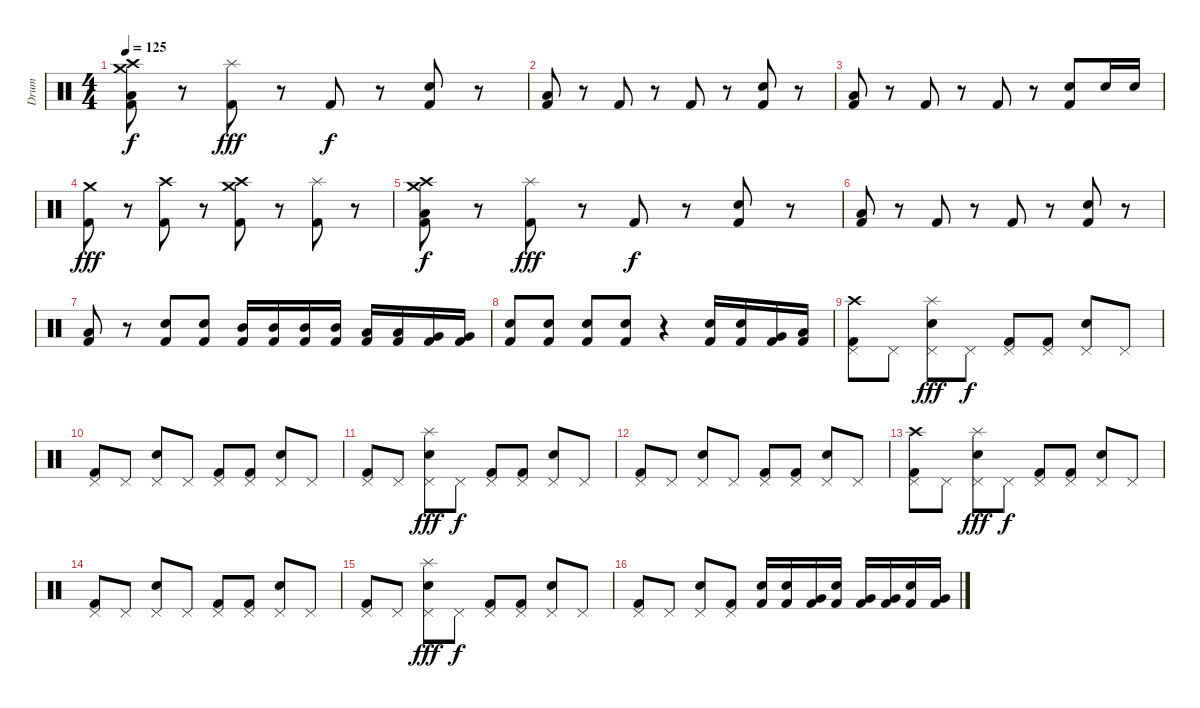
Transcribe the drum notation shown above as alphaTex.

\track ("Drum" "Drum") {instrument percussion}
\staff {score}
\articulation defaults
\ts (4 4)
\tempo 125
\clef neutral
\ks c
("Crash medium (hit)" "Crash high (hit)" "Low Floor Tom (hit)" "Kick (hit) 2").8{dy f} r.8 ("Splash (hit)" "Kick (hit) 2").8{dy fff} r.8 "Kick (hit) 2".8{dy f} r.8 ("Electric Snare (hit)" "Kick (hit) 2").8 r.8 |
("Low Floor Tom (hit)" "Kick (hit) 2").8 r.8 "Kick (hit) 2".8 r.8 "Kick (hit) 2".8 r.8 ("Electric Snare (hit)" "Kick (hit) 2").8 r.8 |
("Low Floor Tom (hit)" "Kick (hit) 2").8 r.8 "Kick (hit) 2".8 r.8 "Kick (hit) 2".8 r.8 ("Electric Snare (hit)" "Kick (hit) 2").8 "Electric Snare (hit)".16 "Electric Snare (hit)".16 |
("Crash medium (hit)" "Kick (hit) 2").8{dy fff} r.8 ("Crash high (hit)" "Kick (hit) 2").8 r.8 ("Crash high (hit)" "Crash medium (hit)" "Kick (hit) 2").8 r.8 ("Splash (hit)" "Kick (hit) 2").8 r.8 |
("Crash high (hit)" "Crash medium (hit)" "Low Floor Tom (hit)" "Kick (hit) 2").8{dy f} r.8 ("Splash (hit)" "Kick (hit) 2").8{dy fff} r.8 "Kick (hit) 2".8{dy f} r.8 ("Electric Snare (hit)" "Kick (hit) 2").8 r.8 |
("Low Floor Tom (hit)" "Kick (hit) 2").8 r.8 "Kick (hit) 2".8 r.8 "Kick (hit) 2".8 r.8 ("Electric Snare (hit)" "Kick (hit) 2").8 r.8 |
("Low Floor Tom (hit)" "Kick (hit) 2").8 r.8 ("Electric Snare (hit)" "Kick (hit) 2").8 ("Electric Snare (hit)" "Kick (hit) 2").8 ("Mid Tom (hit)" "Kick (hit) 2").16 ("Mid Tom (hit)" "Kick (hit) 2").16 ("Mid Tom (hit)" "Kick (hit) 2").16 ("Mid Tom (hit)" "Kick (hit) 2").16 ("Low Tom (hit)" "Kick (hit) 2").16 ("Low Tom (hit)" "Kick (hit) 2").16 ("Very Low Tom (hit)" "Kick (hit) 2").16 ("Very Low Tom (hit)" "Kick (hit) 2").16 |
("Electric Snare (hit)" "Kick (hit) 2").8 ("Electric Snare (hit)" "Kick (hit) 2").8 ("Electric Snare (hit)" "Kick (hit) 2").8 ("Electric Snare (hit)" "Kick (hit) 2").8 r.4 ("Electric Snare (hit)" "Kick (hit) 2").16 ("Electric Snare (hit)" "Kick (hit) 2").16 ("Very Low Tom (hit)" "Kick (hit) 2").16 ("Low Floor Tom (hit)" "Kick (hit) 2").16 |
("Crash high (hit)" "Pedal Hi-Hat (hit)" "Kick (hit) 2").8 "Pedal Hi-Hat (hit)".8 ("Electric Snare (hit)" "Splash (hit)" "Pedal Hi-Hat (hit)").8{dy fff} "Pedal Hi-Hat (hit)".8{dy f} ("Pedal Hi-Hat (hit)" "Kick (hit) 2").8 ("Pedal Hi-Hat (hit)" "Kick (hit) 2").8 ("Electric Snare (hit)" "Pedal Hi-Hat (hit)").8 "Pedal Hi-Hat (hit)".8 |
("Pedal Hi-Hat (hit)" "Kick (hit) 2").8 "Pedal Hi-Hat (hit)".8 ("Electric Snare (hit)" "Pedal Hi-Hat (hit)").8 "Pedal Hi-Hat (hit)".8 ("Pedal Hi-Hat (hit)" "Kick (hit) 2").8 ("Pedal Hi-Hat (hit)" "Kick (hit) 2").8 ("Electric Snare (hit)" "Pedal Hi-Hat (hit)").8 "Pedal Hi-Hat (hit)".8 |
("Pedal Hi-Hat (hit)" "Kick (hit) 2").8 "Pedal Hi-Hat (hit)".8 ("Electric Snare (hit)" "Splash (hit)" "Pedal Hi-Hat (hit)").8{dy fff} "Pedal Hi-Hat (hit)".8{dy f} ("Pedal Hi-Hat (hit)" "Kick (hit) 2").8 ("Pedal Hi-Hat (hit)" "Kick (hit) 2").8 ("Electric Snare (hit)" "Pedal Hi-Hat (hit)").8 "Pedal Hi-Hat (hit)".8 |
("Pedal Hi-Hat (hit)" "Kick (hit) 2").8 "Pedal Hi-Hat (hit)".8 ("Electric Snare (hit)" "Pedal Hi-Hat (hit)").8 "Pedal Hi-Hat (hit)".8 ("Pedal Hi-Hat (hit)" "Kick (hit) 2").8 ("Pedal Hi-Hat (hit)" "Kick (hit) 2").8 ("Electric Snare (hit)" "Pedal Hi-Hat (hit)").8 "Pedal Hi-Hat (hit)".8 |
("Crash high (hit)" "Pedal Hi-Hat (hit)" "Kick (hit) 2").8 "Pedal Hi-Hat (hit)".8 ("Electric Snare (hit)" "Splash (hit)" "Pedal Hi-Hat (hit)").8{dy fff} "Pedal Hi-Hat (hit)".8{dy f} ("Pedal Hi-Hat (hit)" "Kick (hit) 2").8 ("Pedal Hi-Hat (hit)" "Kick (hit) 2").8 ("Electric Snare (hit)" "Pedal Hi-Hat (hit)").8 "Pedal Hi-Hat (hit)".8 |
("Pedal Hi-Hat (hit)" "Kick (hit) 2").8 "Pedal Hi-Hat (hit)".8 ("Electric Snare (hit)" "Pedal Hi-Hat (hit)").8 "Pedal Hi-Hat (hit)".8 ("Pedal Hi-Hat (hit)" "Kick (hit) 2").8 ("Pedal Hi-Hat (hit)" "Kick (hit) 2").8 ("Electric Snare (hit)" "Pedal Hi-Hat (hit)").8 "Pedal Hi-Hat (hit)".8 |
("Pedal Hi-Hat (hit)" "Kick (hit) 2").8 "Pedal Hi-Hat (hit)".8 ("Electric Snare (hit)" "Splash (hit)" "Pedal Hi-Hat (hit)").8{dy fff} "Pedal Hi-Hat (hit)".8{dy f} ("Pedal Hi-Hat (hit)" "Kick (hit) 2").8 ("Pedal Hi-Hat (hit)" "Kick (hit) 2").8 ("Electric Snare (hit)" "Pedal Hi-Hat (hit)").8 "Pedal Hi-Hat (hit)".8 |
("Pedal Hi-Hat (hit)" "Kick (hit) 2").8 "Pedal Hi-Hat (hit)".8 ("Electric Snare (hit)" "Pedal Hi-Hat (hit)").8 ("Pedal Hi-Hat (hit)" "Kick (hit) 2").8 ("Electric Snare (hit)" "Kick (hit) 2").16 ("Electric Snare (hit)" "Kick (hit) 2").16 ("Very Low Tom (hit)" "Kick (hit) 2").16 ("Electric Snare (hit)" "Kick (hit) 2").16 ("Very Low Tom (hit)" "Kick (hit) 2").16 ("Very Low Tom (hit)" "Kick (hit) 2").16 ("Electric Snare (hit)" "Kick (hit) 2").16 ("Very Low Tom (hit)" "Kick (hit) 2").16
